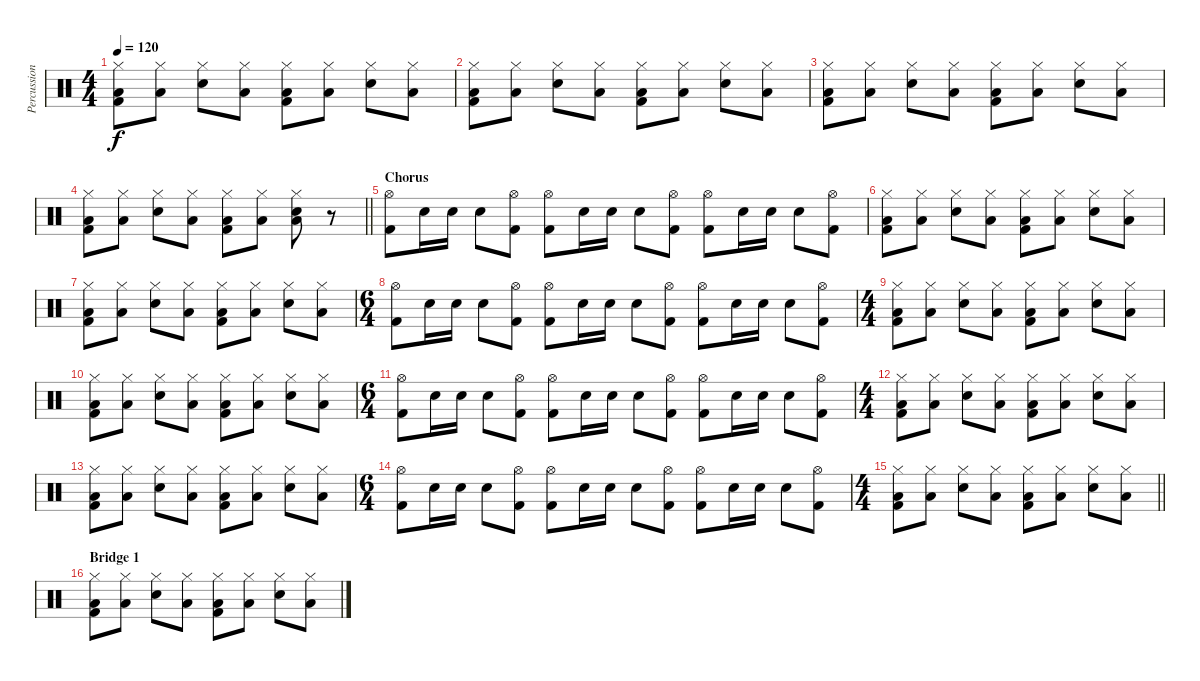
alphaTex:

\track ("Percussion" "Percussion") {instrument percussion}
\staff
\articulation defaults
\ts (4 4)
\tempo 120
\clef neutral
\ks c
("Hi-Hat (closed)" "Low Floor Tom (hit)" "Kick (hit) 2").8{dy f} ("Hi-Hat (closed)" "Low Floor Tom (hit)").8 ("Hi-Hat (closed)" "Snare (hit) 2").8 ("Hi-Hat (closed)" "Low Floor Tom (hit)").8 ("Hi-Hat (closed)" "Low Floor Tom (hit)" "Kick (hit) 2").8 ("Hi-Hat (closed)" "Low Floor Tom (hit)").8 ("Hi-Hat (closed)" "Snare (hit) 2").8 ("Hi-Hat (closed)" "Low Floor Tom (hit)").8 |
("Hi-Hat (closed)" "Low Floor Tom (hit)" "Kick (hit) 2").8 ("Hi-Hat (closed)" "Low Floor Tom (hit)").8 ("Hi-Hat (closed)" "Snare (hit) 2").8 ("Hi-Hat (closed)" "Low Floor Tom (hit)").8 ("Hi-Hat (closed)" "Low Floor Tom (hit)" "Kick (hit) 2").8 ("Hi-Hat (closed)" "Low Floor Tom (hit)").8 ("Hi-Hat (closed)" "Snare (hit) 2").8 ("Hi-Hat (closed)" "Low Floor Tom (hit)").8 |
("Hi-Hat (closed)" "Low Floor Tom (hit)" "Kick (hit) 2").8 ("Hi-Hat (closed)" "Low Floor Tom (hit)").8 ("Hi-Hat (closed)" "Snare (hit) 2").8 ("Hi-Hat (closed)" "Low Floor Tom (hit)").8 ("Hi-Hat (closed)" "Low Floor Tom (hit)" "Kick (hit) 2").8 ("Hi-Hat (closed)" "Low Floor Tom (hit)").8 ("Hi-Hat (closed)" "Snare (hit) 2").8 ("Hi-Hat (closed)" "Low Floor Tom (hit)").8 |
\barLineRight lightlight
("Hi-Hat (closed)" "Low Floor Tom (hit)" "Kick (hit) 2").8 ("Hi-Hat (closed)" "Low Floor Tom (hit)").8 ("Hi-Hat (closed)" "Snare (hit) 2").8 ("Hi-Hat (closed)" "Low Floor Tom (hit)").8 ("Hi-Hat (closed)" "Low Floor Tom (hit)" "Kick (hit) 2").8 ("Hi-Hat (closed)" "Low Floor Tom (hit)").8 ("Hi-Hat (closed)" "Snare (hit) 2" "Low Floor Tom (hit)").8 r.8 |
\section ("" "Chorus")
("Hi-Hat (open)" "Kick (hit) 2").8 "Snare (hit) 2".16 "Snare (hit) 2".16 "Snare (hit) 2".8 ("Hi-Hat (open)" "Kick (hit) 2").8 ("Hi-Hat (open)" "Kick (hit) 2").8 "Snare (hit) 2".16 "Snare (hit) 2".16 "Snare (hit) 2".8 ("Hi-Hat (open)" "Kick (hit) 2").8 ("Hi-Hat (open)" "Kick (hit) 2").8 "Snare (hit) 2".16 "Snare (hit) 2".16 "Snare (hit) 2".8 ("Hi-Hat (open)" "Kick (hit) 2").8 |
("Hi-Hat (closed)" "Low Floor Tom (hit)" "Kick (hit) 2").8 ("Hi-Hat (closed)" "Low Floor Tom (hit)").8 ("Hi-Hat (closed)" "Snare (hit) 2").8 ("Hi-Hat (closed)" "Low Floor Tom (hit)").8 ("Hi-Hat (closed)" "Low Floor Tom (hit)" "Kick (hit) 2").8 ("Hi-Hat (closed)" "Low Floor Tom (hit)").8 ("Hi-Hat (closed)" "Snare (hit) 2").8 ("Hi-Hat (closed)" "Low Floor Tom (hit)").8 |
("Hi-Hat (closed)" "Low Floor Tom (hit)" "Kick (hit) 2").8 ("Hi-Hat (closed)" "Low Floor Tom (hit)").8 ("Hi-Hat (closed)" "Snare (hit) 2").8 ("Hi-Hat (closed)" "Low Floor Tom (hit)").8 ("Hi-Hat (closed)" "Low Floor Tom (hit)" "Kick (hit) 2").8 ("Hi-Hat (closed)" "Low Floor Tom (hit)").8 ("Hi-Hat (closed)" "Snare (hit) 2").8 ("Hi-Hat (closed)" "Low Floor Tom (hit)").8 |
\ts (6 4)
("Hi-Hat (open)" "Kick (hit) 2").8 "Snare (hit) 2".16 "Snare (hit) 2".16 "Snare (hit) 2".8 ("Hi-Hat (open)" "Kick (hit) 2").8 ("Hi-Hat (open)" "Kick (hit) 2").8 "Snare (hit) 2".16 "Snare (hit) 2".16 "Snare (hit) 2".8 ("Hi-Hat (open)" "Kick (hit) 2").8 ("Hi-Hat (open)" "Kick (hit) 2").8 "Snare (hit) 2".16 "Snare (hit) 2".16 "Snare (hit) 2".8 ("Hi-Hat (open)" "Kick (hit) 2").8 |
\ts (4 4)
("Hi-Hat (closed)" "Low Floor Tom (hit)" "Kick (hit) 2").8 ("Hi-Hat (closed)" "Low Floor Tom (hit)").8 ("Hi-Hat (closed)" "Snare (hit) 2").8 ("Hi-Hat (closed)" "Low Floor Tom (hit)").8 ("Hi-Hat (closed)" "Low Floor Tom (hit)" "Kick (hit) 2").8 ("Hi-Hat (closed)" "Low Floor Tom (hit)").8 ("Hi-Hat (closed)" "Snare (hit) 2").8 ("Hi-Hat (closed)" "Low Floor Tom (hit)").8 |
("Hi-Hat (closed)" "Low Floor Tom (hit)" "Kick (hit) 2").8 ("Hi-Hat (closed)" "Low Floor Tom (hit)").8 ("Hi-Hat (closed)" "Snare (hit) 2").8 ("Hi-Hat (closed)" "Low Floor Tom (hit)").8 ("Hi-Hat (closed)" "Low Floor Tom (hit)" "Kick (hit) 2").8 ("Hi-Hat (closed)" "Low Floor Tom (hit)").8 ("Hi-Hat (closed)" "Snare (hit) 2").8 ("Hi-Hat (closed)" "Low Floor Tom (hit)").8 |
\ts (6 4)
("Hi-Hat (open)" "Kick (hit) 2").8 "Snare (hit) 2".16 "Snare (hit) 2".16 "Snare (hit) 2".8 ("Hi-Hat (open)" "Kick (hit) 2").8 ("Hi-Hat (open)" "Kick (hit) 2").8 "Snare (hit) 2".16 "Snare (hit) 2".16 "Snare (hit) 2".8 ("Hi-Hat (open)" "Kick (hit) 2").8 ("Hi-Hat (open)" "Kick (hit) 2").8 "Snare (hit) 2".16 "Snare (hit) 2".16 "Snare (hit) 2".8 ("Hi-Hat (open)" "Kick (hit) 2").8 |
\ts (4 4)
("Hi-Hat (closed)" "Low Floor Tom (hit)" "Kick (hit) 2").8 ("Hi-Hat (closed)" "Low Floor Tom (hit)").8 ("Hi-Hat (closed)" "Snare (hit) 2").8 ("Hi-Hat (closed)" "Low Floor Tom (hit)").8 ("Hi-Hat (closed)" "Low Floor Tom (hit)" "Kick (hit) 2").8 ("Hi-Hat (closed)" "Low Floor Tom (hit)").8 ("Hi-Hat (closed)" "Snare (hit) 2").8 ("Hi-Hat (closed)" "Low Floor Tom (hit)").8 |
("Hi-Hat (closed)" "Low Floor Tom (hit)" "Kick (hit) 2").8 ("Hi-Hat (closed)" "Low Floor Tom (hit)").8 ("Hi-Hat (closed)" "Snare (hit) 2").8 ("Hi-Hat (closed)" "Low Floor Tom (hit)").8 ("Hi-Hat (closed)" "Low Floor Tom (hit)" "Kick (hit) 2").8 ("Hi-Hat (closed)" "Low Floor Tom (hit)").8 ("Hi-Hat (closed)" "Snare (hit) 2").8 ("Hi-Hat (closed)" "Low Floor Tom (hit)").8 |
\ts (6 4)
("Hi-Hat (open)" "Kick (hit) 2").8 "Snare (hit) 2".16 "Snare (hit) 2".16 "Snare (hit) 2".8 ("Hi-Hat (open)" "Kick (hit) 2").8 ("Hi-Hat (open)" "Kick (hit) 2").8 "Snare (hit) 2".16 "Snare (hit) 2".16 "Snare (hit) 2".8 ("Hi-Hat (open)" "Kick (hit) 2").8 ("Hi-Hat (open)" "Kick (hit) 2").8 "Snare (hit) 2".16 "Snare (hit) 2".16 "Snare (hit) 2".8 ("Hi-Hat (open)" "Kick (hit) 2").8 |
\ts (4 4)
\barLineRight lightlight
("Hi-Hat (closed)" "Low Floor Tom (hit)" "Kick (hit) 2").8 ("Hi-Hat (closed)" "Low Floor Tom (hit)").8 ("Hi-Hat (closed)" "Snare (hit) 2").8 ("Hi-Hat (closed)" "Low Floor Tom (hit)").8 ("Hi-Hat (closed)" "Low Floor Tom (hit)" "Kick (hit) 2").8 ("Hi-Hat (closed)" "Low Floor Tom (hit)").8 ("Hi-Hat (closed)" "Snare (hit) 2").8 ("Hi-Hat (closed)" "Low Floor Tom (hit)").8 |
\section ("" "Bridge 1")
("Hi-Hat (closed)" "Low Floor Tom (hit)" "Kick (hit) 2").8 ("Hi-Hat (closed)" "Low Floor Tom (hit)").8 ("Hi-Hat (closed)" "Snare (hit) 2").8 ("Hi-Hat (closed)" "Low Floor Tom (hit)").8 ("Hi-Hat (closed)" "Low Floor Tom (hit)" "Kick (hit) 2").8 ("Hi-Hat (closed)" "Low Floor Tom (hit)").8 ("Hi-Hat (closed)" "Snare (hit) 2").8 ("Hi-Hat (closed)" "Low Floor Tom (hit)").8
